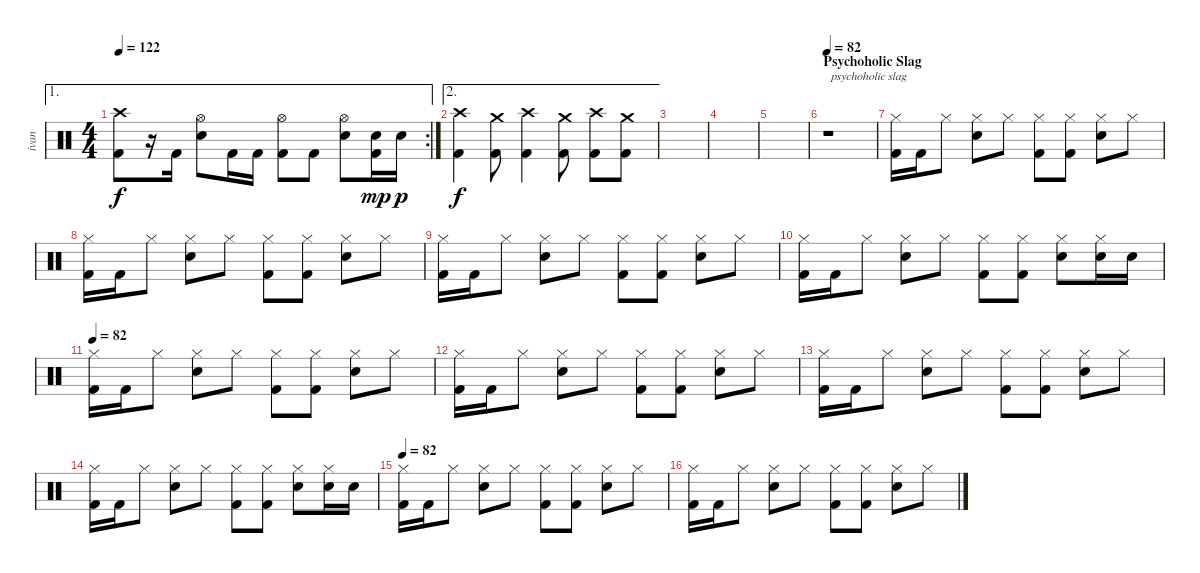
\track ("ivan" "ivan") {instrument percussion}
\staff {score}
\articulation defaults
\ae 1
\rc 2
\ts (4 4)
\tempo 122
\clef neutral
\ks c
("Crash high (hit)" "Kick (hit) 2").8{dy f} r.16 "Kick (hit) 2".16 ("Hi-Hat (open)" "Electric Snare (hit)").8 "Kick (hit) 2".16 "Kick (hit) 2".16 ("Hi-Hat (open)" "Kick (hit) 2").8 "Kick (hit) 2".8 ("Hi-Hat (open)" "Electric Snare (hit)").8 ("Electric Snare (hit)" "Kick (hit) 2").16{dy mp} "Electric Snare (hit)".16{dy p} |
\ae 2
("Crash high (hit)" "Kick (hit) 2").4{dy f} ("Crash medium (hit)" "Kick (hit) 2").8 ("Crash high (hit)" "Kick (hit) 2").4 ("Crash medium (hit)" "Kick (hit) 2").8 ("Crash high (hit)" "Kick (hit) 2").8 ("Crash medium (hit)" "Kick (hit) 2").8 |
|
|
|
\section ("" "Psychoholic Slag")
\tempo 82
r.1{txt " psychoholic slag"} |
("Hi-Hat (closed)" "Kick (hit) 2").16 "Kick (hit) 2".16 "Hi-Hat (closed)".8 ("Hi-Hat (closed)" "Electric Snare (hit)").8 "Hi-Hat (closed)".8 ("Hi-Hat (closed)" "Kick (hit) 2").8 ("Hi-Hat (closed)" "Kick (hit) 2").8 ("Hi-Hat (closed)" "Electric Snare (hit)").8 "Hi-Hat (closed)".8 |
("Hi-Hat (closed)" "Kick (hit) 2").16 "Kick (hit) 2".16 "Hi-Hat (closed)".8 ("Hi-Hat (closed)" "Electric Snare (hit)").8 "Hi-Hat (closed)".8 ("Hi-Hat (closed)" "Kick (hit) 2").8 ("Hi-Hat (closed)" "Kick (hit) 2").8 ("Hi-Hat (closed)" "Electric Snare (hit)").8 "Hi-Hat (closed)".8 |
("Hi-Hat (closed)" "Kick (hit) 2").16 "Kick (hit) 2".16 "Hi-Hat (closed)".8 ("Hi-Hat (closed)" "Electric Snare (hit)").8 "Hi-Hat (closed)".8 ("Hi-Hat (closed)" "Kick (hit) 2").8 ("Hi-Hat (closed)" "Kick (hit) 2").8 ("Hi-Hat (closed)" "Electric Snare (hit)").8 "Hi-Hat (closed)".8 |
("Hi-Hat (closed)" "Kick (hit) 2").16 "Kick (hit) 2".16 "Hi-Hat (closed)".8 ("Hi-Hat (closed)" "Electric Snare (hit)").8 "Hi-Hat (closed)".8 ("Hi-Hat (closed)" "Kick (hit) 2").8 ("Hi-Hat (closed)" "Kick (hit) 2").8 ("Hi-Hat (closed)" "Electric Snare (hit)").8 ("Hi-Hat (closed)" "Electric Snare (hit)").16 "Electric Snare (hit)".16 |
\tempo 82
("Hi-Hat (closed)" "Kick (hit) 2").16 "Kick (hit) 2".16 "Hi-Hat (closed)".8 ("Hi-Hat (closed)" "Electric Snare (hit)").8 "Hi-Hat (closed)".8 ("Hi-Hat (closed)" "Kick (hit) 2").8 ("Hi-Hat (closed)" "Kick (hit) 2").8 ("Hi-Hat (closed)" "Electric Snare (hit)").8 "Hi-Hat (closed)".8 |
("Hi-Hat (closed)" "Kick (hit) 2").16 "Kick (hit) 2".16 "Hi-Hat (closed)".8 ("Hi-Hat (closed)" "Electric Snare (hit)").8 "Hi-Hat (closed)".8 ("Hi-Hat (closed)" "Kick (hit) 2").8 ("Hi-Hat (closed)" "Kick (hit) 2").8 ("Hi-Hat (closed)" "Electric Snare (hit)").8 "Hi-Hat (closed)".8 |
("Hi-Hat (closed)" "Kick (hit) 2").16 "Kick (hit) 2".16 "Hi-Hat (closed)".8 ("Hi-Hat (closed)" "Electric Snare (hit)").8 "Hi-Hat (closed)".8 ("Hi-Hat (closed)" "Kick (hit) 2").8 ("Hi-Hat (closed)" "Kick (hit) 2").8 ("Hi-Hat (closed)" "Electric Snare (hit)").8 "Hi-Hat (closed)".8 |
("Hi-Hat (closed)" "Kick (hit) 2").16 "Kick (hit) 2".16 "Hi-Hat (closed)".8 ("Hi-Hat (closed)" "Electric Snare (hit)").8 "Hi-Hat (closed)".8 ("Hi-Hat (closed)" "Kick (hit) 2").8 ("Hi-Hat (closed)" "Kick (hit) 2").8 ("Hi-Hat (closed)" "Electric Snare (hit)").8 ("Hi-Hat (closed)" "Electric Snare (hit)").16 "Electric Snare (hit)".16 |
\tempo 82
("Hi-Hat (closed)" "Kick (hit) 2").16 "Kick (hit) 2".16 "Hi-Hat (closed)".8 ("Hi-Hat (closed)" "Electric Snare (hit)").8 "Hi-Hat (closed)".8 ("Hi-Hat (closed)" "Kick (hit) 2").8 ("Hi-Hat (closed)" "Kick (hit) 2").8 ("Hi-Hat (closed)" "Electric Snare (hit)").8 "Hi-Hat (closed)".8 |
("Hi-Hat (closed)" "Kick (hit) 2").16 "Kick (hit) 2".16 "Hi-Hat (closed)".8 ("Hi-Hat (closed)" "Electric Snare (hit)").8 "Hi-Hat (closed)".8 ("Hi-Hat (closed)" "Kick (hit) 2").8 ("Hi-Hat (closed)" "Kick (hit) 2").8 ("Hi-Hat (closed)" "Electric Snare (hit)").8 "Hi-Hat (closed)".8
